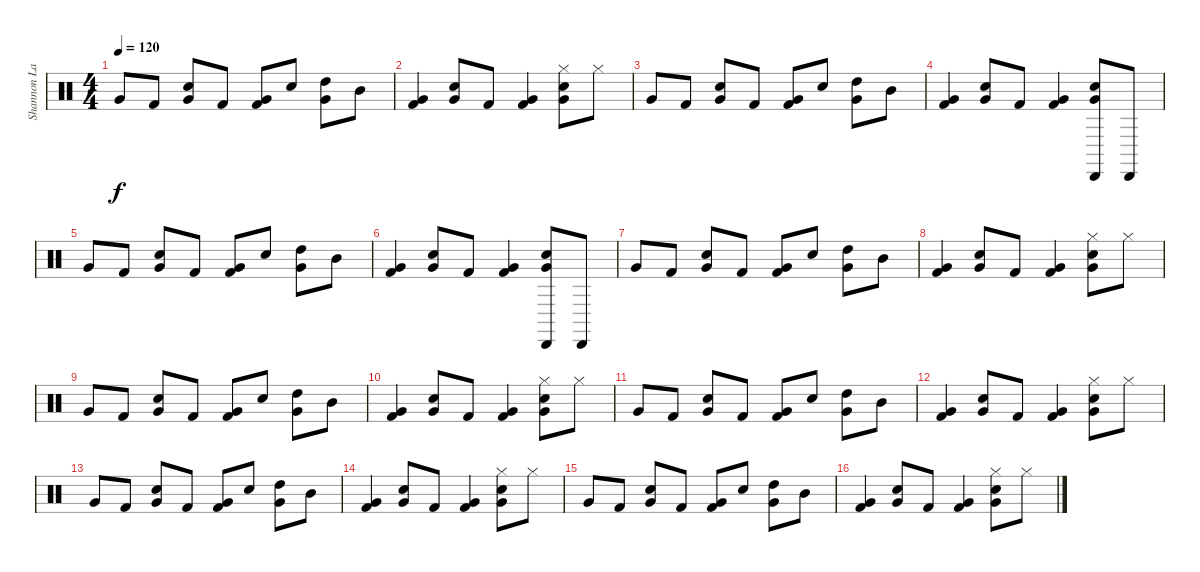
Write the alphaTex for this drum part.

\track ("Shannon Larkin [Drums]" "Shannon La") {instrument percussion}
\staff {score}
\articulation defaults
\ts (4 4)
\tempo 120
\clef neutral
\ks c "Very Low Tom (hit)".8{dy f} "Kick (hit) 2".8
("Very Low Tom (hit)" "Electric Snare (hit)").8 "Kick (hit) 2".8 ("Very Low Tom (hit)" "Kick (hit) 2").8 "Electric Snare (hit)".8 ("Very Low Tom (hit)" "High Tom (hit)").8 "Mid Tom (hit)".8 |
("Very Low Tom (hit)" "Kick (hit) 2").4 ("Very Low Tom (hit)" "Electric Snare (hit)").8 "Kick (hit) 2".8 ("Very Low Tom (hit)" "Kick (hit) 2").4 ("Hi-Hat (closed)" "Very Low Tom (hit)" "Electric Snare (hit)").8 "Hi-Hat (closed)".8 |
"Very Low Tom (hit)".8 "Kick (hit) 2".8 ("Very Low Tom (hit)" "Electric Snare (hit)").8 "Kick (hit) 2".8 ("Very Low Tom (hit)" "Kick (hit) 2").8 "Electric Snare (hit)".8 ("Very Low Tom (hit)" "High Tom (hit)").8 "Mid Tom (hit)".8 |
("Very Low Tom (hit)" "Kick (hit) 2").4 ("Very Low Tom (hit)" "Electric Snare (hit)").8 "Kick (hit) 2".8 ("Very Low Tom (hit)" "Kick (hit) 2").4 ("Cabasa (hit)" "Very Low Tom (hit)" "Electric Snare (hit)").8 "Cabasa (hit)".8 |
"Very Low Tom (hit)".8 "Kick (hit) 2".8 ("Very Low Tom (hit)" "Electric Snare (hit)").8 "Kick (hit) 2".8 ("Very Low Tom (hit)" "Kick (hit) 2").8 "Electric Snare (hit)".8 ("Very Low Tom (hit)" "High Tom (hit)").8 "Mid Tom (hit)".8 |
("Very Low Tom (hit)" "Kick (hit) 2").4 ("Very Low Tom (hit)" "Electric Snare (hit)").8 "Kick (hit) 2".8 ("Very Low Tom (hit)" "Kick (hit) 2").4 ("Cabasa (hit)" "Very Low Tom (hit)" "Electric Snare (hit)").8 "Cabasa (hit)".8 |
"Very Low Tom (hit)".8 "Kick (hit) 2".8 ("Very Low Tom (hit)" "Electric Snare (hit)").8 "Kick (hit) 2".8 ("Very Low Tom (hit)" "Kick (hit) 2").8 "Electric Snare (hit)".8 ("Very Low Tom (hit)" "High Tom (hit)").8 "Mid Tom (hit)".8 |
("Very Low Tom (hit)" "Kick (hit) 2").4 ("Very Low Tom (hit)" "Electric Snare (hit)").8 "Kick (hit) 2".8 ("Very Low Tom (hit)" "Kick (hit) 2").4 ("Hi-Hat (closed)" "Very Low Tom (hit)" "Electric Snare (hit)").8 "Hi-Hat (closed)".8 |
"Very Low Tom (hit)".8 "Kick (hit) 2".8 ("Very Low Tom (hit)" "Electric Snare (hit)").8 "Kick (hit) 2".8 ("Very Low Tom (hit)" "Kick (hit) 2").8 "Electric Snare (hit)".8 ("Very Low Tom (hit)" "High Tom (hit)").8 "Mid Tom (hit)".8 |
("Very Low Tom (hit)" "Kick (hit) 2").4 ("Very Low Tom (hit)" "Electric Snare (hit)").8 "Kick (hit) 2".8 ("Very Low Tom (hit)" "Kick (hit) 2").4 ("Hi-Hat (closed)" "Very Low Tom (hit)" "Electric Snare (hit)").8 "Hi-Hat (closed)".8 |
"Very Low Tom (hit)".8 "Kick (hit) 2".8 ("Very Low Tom (hit)" "Electric Snare (hit)").8 "Kick (hit) 2".8 ("Very Low Tom (hit)" "Kick (hit) 2").8 "Electric Snare (hit)".8 ("Very Low Tom (hit)" "High Tom (hit)").8 "Mid Tom (hit)".8 |
("Very Low Tom (hit)" "Kick (hit) 2").4 ("Very Low Tom (hit)" "Electric Snare (hit)").8 "Kick (hit) 2".8 ("Very Low Tom (hit)" "Kick (hit) 2").4 ("Hi-Hat (closed)" "Very Low Tom (hit)" "Electric Snare (hit)").8 "Hi-Hat (closed)".8 |
"Very Low Tom (hit)".8 "Kick (hit) 2".8 ("Very Low Tom (hit)" "Electric Snare (hit)").8 "Kick (hit) 2".8 ("Very Low Tom (hit)" "Kick (hit) 2").8 "Electric Snare (hit)".8 ("Very Low Tom (hit)" "High Tom (hit)").8 "Mid Tom (hit)".8 |
("Very Low Tom (hit)" "Kick (hit) 2").4 ("Very Low Tom (hit)" "Electric Snare (hit)").8 "Kick (hit) 2".8 ("Very Low Tom (hit)" "Kick (hit) 2").4 ("Hi-Hat (closed)" "Very Low Tom (hit)" "Electric Snare (hit)").8 "Hi-Hat (closed)".8 |
"Very Low Tom (hit)".8 "Kick (hit) 2".8 ("Very Low Tom (hit)" "Electric Snare (hit)").8 "Kick (hit) 2".8 ("Very Low Tom (hit)" "Kick (hit) 2").8 "Electric Snare (hit)".8 ("Very Low Tom (hit)" "High Tom (hit)").8 "Mid Tom (hit)".8 |
("Very Low Tom (hit)" "Kick (hit) 2").4 ("Very Low Tom (hit)" "Electric Snare (hit)").8 "Kick (hit) 2".8 ("Very Low Tom (hit)" "Kick (hit) 2").4 ("Hi-Hat (closed)" "Very Low Tom (hit)" "Electric Snare (hit)").8 "Hi-Hat (closed)".8
